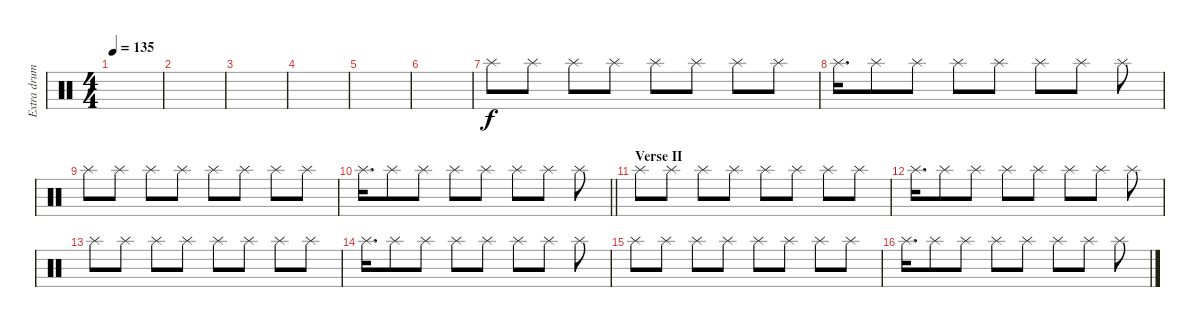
\track ("Extra drums" "Extra drum") {instrument percussion}
\staff {score}
\articulation defaults
\ts (4 4)
\tempo 135
\clef neutral
\ks c
|
|
|
|
|
|
"Splash (hit)".8 "Splash (hit)".8 "Splash (hit)".8 "Splash (hit)".8 "Splash (hit)".8 "Splash (hit)".8 "Splash (hit)".8 "Splash (hit)".8 |
"Splash (hit)".16{d} "Splash (hit)".8 "Splash (hit)".8 "Splash (hit)".8 "Splash (hit)".8 "Splash (hit)".8 "Splash (hit)".8 "Splash (hit)".8 |
"Splash (hit)".8 "Splash (hit)".8 "Splash (hit)".8 "Splash (hit)".8 "Splash (hit)".8 "Splash (hit)".8 "Splash (hit)".8 "Splash (hit)".8 |
\barLineRight lightlight "Splash (hit)".16{d} "Splash (hit)".8 "Splash (hit)".8 "Splash (hit)".8 "Splash (hit)".8 "Splash (hit)".8 "Splash (hit)".8 "Splash (hit)".8
|
\section ("" "Verse II")
"Splash (hit)".8 "Splash (hit)".8 "Splash (hit)".8 "Splash (hit)".8 "Splash (hit)".8 "Splash (hit)".8 "Splash (hit)".8 "Splash (hit)".8 |
"Splash (hit)".16{d} "Splash (hit)".8 "Splash (hit)".8 "Splash (hit)".8 "Splash (hit)".8 "Splash (hit)".8 "Splash (hit)".8 "Splash (hit)".8 |
"Splash (hit)".8 "Splash (hit)".8 "Splash (hit)".8 "Splash (hit)".8 "Splash (hit)".8 "Splash (hit)".8 "Splash (hit)".8 "Splash (hit)".8 |
"Splash (hit)".16{d} "Splash (hit)".8 "Splash (hit)".8 "Splash (hit)".8 "Splash (hit)".8 "Splash (hit)".8 "Splash (hit)".8 "Splash (hit)".8 |
"Splash (hit)".8 "Splash (hit)".8 "Splash (hit)".8 "Splash (hit)".8 "Splash (hit)".8 "Splash (hit)".8 "Splash (hit)".8 "Splash (hit)".8 |
"Splash (hit)".16{d} "Splash (hit)".8 "Splash (hit)".8 "Splash (hit)".8 "Splash (hit)".8 "Splash (hit)".8 "Splash (hit)".8 "Splash (hit)".8
